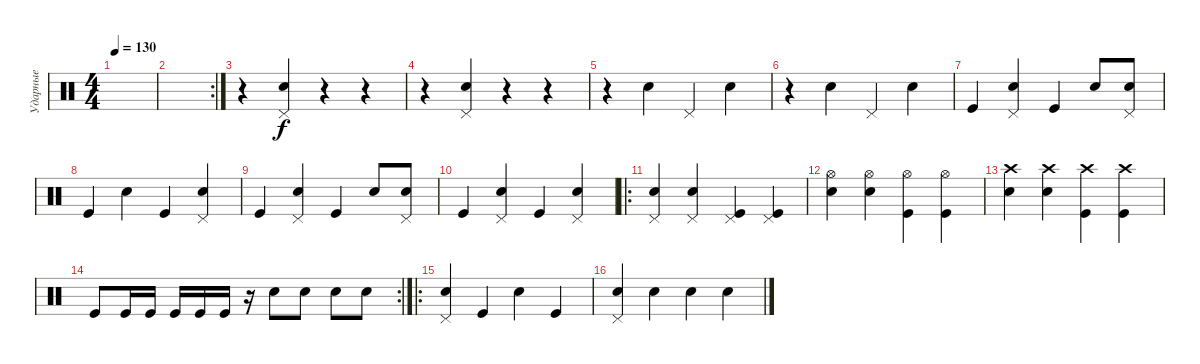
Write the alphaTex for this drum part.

\track ("Ударные" "Ударные") {instrument percussion}
\staff {score}
\articulation defaults
\ts (4 4)
\tempo 130
\clef neutral
\ks c
|
\rc 2
|
r.4 ("Electric Snare (hit)" "Pedal Hi-Hat (hit)").4 r.4 r.4 |
r.4 ("Electric Snare (hit)" "Pedal Hi-Hat (hit)").4 r.4 r.4 |
r.4 "Electric Snare (hit)".4 "Pedal Hi-Hat (hit)".4 "Electric Snare (hit)".4 |
r.4 "Electric Snare (hit)".4 "Pedal Hi-Hat (hit)".4 "Electric Snare (hit)".4 |
"Kick (hit)".4 ("Electric Snare (hit)" "Pedal Hi-Hat (hit)").4 "Kick (hit)".4 "Electric Snare (hit)".8 ("Electric Snare (hit)" "Pedal Hi-Hat (hit)").8 |
"Kick (hit)".4 "Electric Snare (hit)".4 "Kick (hit)".4 ("Electric Snare (hit)" "Pedal Hi-Hat (hit)").4 |
"Kick (hit)".4 ("Electric Snare (hit)" "Pedal Hi-Hat (hit)").4 "Kick (hit)".4 "Electric Snare (hit)".8 ("Electric Snare (hit)" "Pedal Hi-Hat (hit)").8 |
"Kick (hit)".4 ("Electric Snare (hit)" "Pedal Hi-Hat (hit)").4 "Kick (hit)".4 ("Electric Snare (hit)" "Pedal Hi-Hat (hit)").4 |
\ro
("Electric Snare (hit)" "Pedal Hi-Hat (hit)").4 ("Electric Snare (hit)" "Pedal Hi-Hat (hit)").4 ("Kick (hit)" "Pedal Hi-Hat (hit)").4 ("Kick (hit)" "Pedal Hi-Hat (hit)").4 |
("Electric Snare (hit)" "Hi-Hat (open)").4 ("Electric Snare (hit)" "Hi-Hat (open)").4 ("Kick (hit)" "Hi-Hat (open)").4 ("Kick (hit)" "Hi-Hat (open)").4 |
("Electric Snare (hit)" "Crash high (hit)").4 ("Electric Snare (hit)" "Crash high (hit)").4 ("Kick (hit)" "Crash high (hit)").4 ("Kick (hit)" "Crash high (hit)").4 |
\rc 2 "Kick (hit)".8 "Kick (hit)".16 "Kick (hit)".16 "Kick (hit)".16 "Kick (hit)".16 "Kick (hit)".16
r.16 "Snare (hit) 2".8 "Snare (hit) 2".8 "Snare (hit) 2".8 "Snare (hit) 2".8 |
\ro
("Pedal Hi-Hat (hit)" "Snare (hit) 2").4 "Kick (hit)".4 "Snare (hit) 2".4 "Kick (hit)".4 |
("Pedal Hi-Hat (hit)" "Electric Snare (hit)").4 "Snare (hit) 2".4 "Electric Snare (hit)".4 "Snare (hit) 2".4
